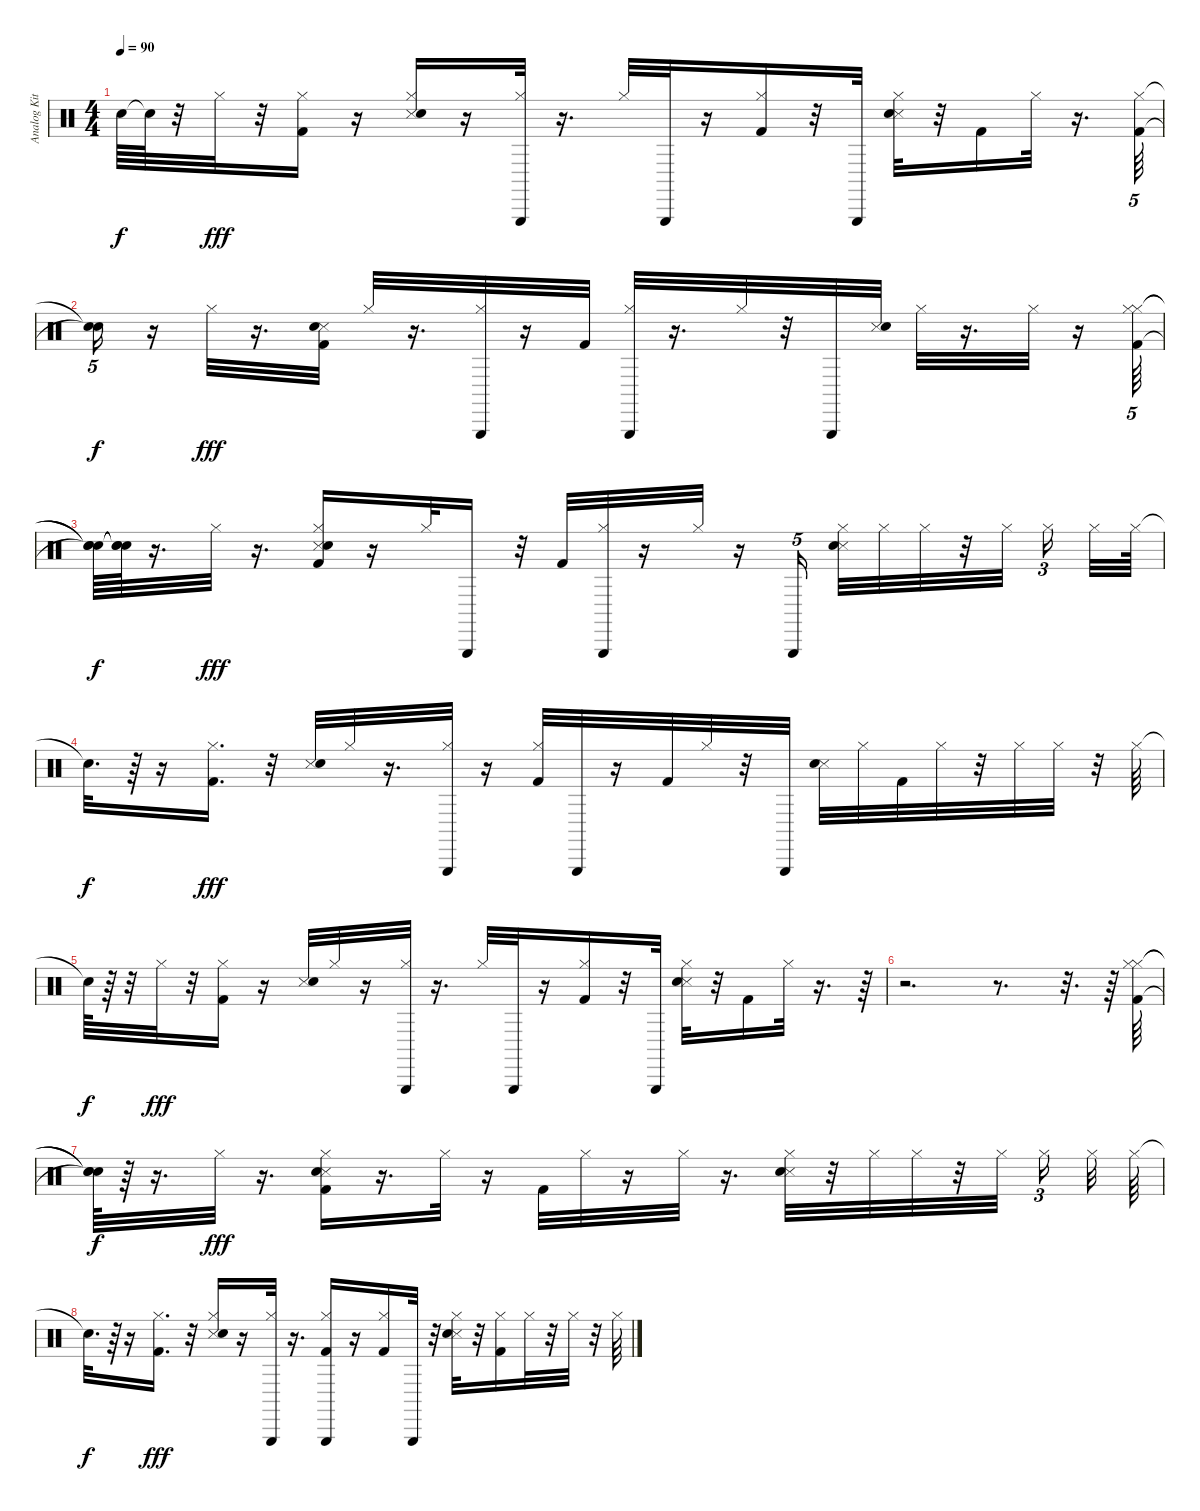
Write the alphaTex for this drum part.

\track ("Analog Kit" "Analog Kit") {instrument percussion}
\staff {score}
\articulation defaults
\ts (4 4)
\tempo 90
\clef neutral
\ks c "Snare (hit)"{t}.64{dy f} "Snare (hit)"{t}.64
r.32 "Hi-Hat (closed)".32{dy fff} r.32 ("Hi-Hat (closed)" "Kick (hit) 2").16 r.16 ("Snare (side stick) 3" "Electric Snare (hit)" "Hi-Hat (closed)").16 r.16 ("Hi-Hat (closed)" "Triangle (hit)").32 r.16{d} "Hi-Hat (closed)".32 "Triangle (hit)".32 r.16 ("Kick (hit) 2" "Hi-Hat (closed)").16 r.32 "Triangle (hit)".32 ("Snare (side stick) 3" "Electric Snare (hit)" "Hi-Hat (closed)").32 r.32 "Kick (hit) 2".16 "Hi-Hat (closed)".32 r.16{d} ("Hi-Hat (closed)" "Kick (hit) 2").64{tu (5 4)} |
("Snare (hit)"{t} "Snare (hit)"{t}).16{tu (5 4) dy f} r.16 "Hi-Hat (closed)".32{dy fff} r.16{d} ("Snare (side stick) 3" "Kick (hit) 2" "Electric Snare (hit)").32 "Hi-Hat (closed)".32 r.16{d} ("Triangle (hit)" "Hi-Hat (closed)").32 r.16 "Kick (hit) 2".32 ("Hi-Hat (closed)" "Triangle (hit)").32 r.16{d} "Hi-Hat (closed)".32 r.32 "Triangle (hit)".32 ("Snare (side stick) 3" "Electric Snare (hit)").32 "Hi-Hat (closed)".32 r.16{d} "Hi-Hat (closed)".32 r.16 ("Hi-Hat (closed)" "Hi-Hat (closed)" "Kick (hit) 2").64{tu (5 4)} |
("Snare (hit)"{t} "Snare (hit)"{t} "Snare (hit)"{t}).64{dy f} ("Snare (hit)"{t} "Snare (hit)"{t} "Snare (hit)"{t}).64 r.16{d} "Hi-Hat (closed)".32{dy fff} r.16{d} ("Hi-Hat (closed)" "Snare (side stick) 3" "Kick (hit) 2" "Electric Snare (hit)").16 r.16 "Hi-Hat (closed)".32 "Triangle (hit)".16 r.32 "Kick (hit) 2".32 ("Hi-Hat (closed)" "Triangle (hit)").32 r.16 "Hi-Hat (closed)".32 r.16 "Triangle (hit)".16{tu (5 4)} ("Hi-Hat (closed)" "Snare (side stick) 3" "Electric Snare (hit)").32 "Hi-Hat (closed)".32 "Hi-Hat (closed)".32 r.32 "Hi-Hat (closed)".32{beam splitsecondary} "Hi-Hat (closed)".16{tu (3 2) beam splitsecondary} "Hi-Hat (closed)".32 "Hi-Hat (closed)".64 |
"Snare (hit)"{t}.32{d dy f} r.64 r.16 ("Kick (hit) 2" "Hi-Hat (closed)").16{d dy fff} r.32 ("Snare (side stick) 3" "Electric Snare (hit)").32 "Hi-Hat (closed)".32 r.16{d} ("Hi-Hat (closed)" "Triangle (hit)").32 r.16 ("Hi-Hat (closed)" "Kick (hit) 2").32 "Triangle (hit)".32 r.16 "Kick (hit) 2".32 "Hi-Hat (closed)".32 r.32 "Triangle (hit)".32 ("Snare (side stick) 3" "Electric Snare (hit)").32 "Hi-Hat (closed)".32 "Kick (hit) 2".32 "Hi-Hat (closed)".32 r.32 "Hi-Hat (closed)".32 "Hi-Hat (closed)".32 r.32 "Hi-Hat (closed)".64 |
"Snare (hit)"{t}.64{dy f} r.64 r.32 "Hi-Hat (closed)".32{dy fff} r.32 ("Hi-Hat (closed)" "Kick (hit) 2").16 r.16 ("Snare (side stick) 3" "Electric Snare (hit)").32 "Hi-Hat (closed)".32 r.16 ("Hi-Hat (closed)" "Triangle (hit)").32 r.16{d} "Hi-Hat (closed)".32 "Triangle (hit)".32 r.16 ("Kick (hit) 2" "Hi-Hat (closed)").16 r.32 "Triangle (hit)".32 ("Snare (side stick) 3" "Electric Snare (hit)" "Hi-Hat (closed)").32 r.32 "Kick (hit) 2".16 "Hi-Hat (closed)".32 r.16{d} r.64 |
r.2{d} r.8{d} r.32{d} r.64 ("Hi-Hat (closed)" "Hi-Hat (closed)" "Kick (hit) 2").64 |
("Snare (hit)"{t} "Snare (hit)"{t} "Snare (hit)"{t}).64{dy f} r.64 r.16{d} "Hi-Hat (closed)".32{dy fff} r.16{d} ("Hi-Hat (closed)" "Snare (side stick) 3" "Kick (hit) 2" "Electric Snare (hit)").16 r.16{d} "Hi-Hat (closed)".32 r.16 "Kick (hit) 2".32 "Hi-Hat (closed)".32 r.16 "Hi-Hat (closed)".32 r.16{d} ("Hi-Hat (closed)" "Snare (side stick) 3" "Electric Snare (hit)").32 r.32 "Hi-Hat (closed)".32 "Hi-Hat (closed)".32 r.32 "Hi-Hat (closed)".32{beam splitsecondary} "Hi-Hat (closed)".16{tu (3 2)} "Hi-Hat (closed)".32 "Hi-Hat (closed)".64 |
"Snare (hit)"{t}.32{d dy f} r.64 r.16 ("Kick (hit) 2" "Hi-Hat (closed)").16{d dy fff} r.32 ("Snare (side stick) 3" "Electric Snare (hit)" "Hi-Hat (closed)").16 r.16 ("Hi-Hat (closed)" "Triangle (hit)").32 r.16{d} ("Hi-Hat (closed)" "Kick (hit) 2" "Triangle (hit)").16 r.16 ("Kick (hit) 2" "Hi-Hat (closed)").16 "Triangle (hit)".32 r.32 ("Snare (side stick) 3" "Electric Snare (hit)" "Hi-Hat (closed)").32 r.32 ("Kick (hit) 2" "Hi-Hat (closed)").16 "Hi-Hat (closed)".32 r.32 "Hi-Hat (closed)".32 r.32 "Hi-Hat (closed)".64
